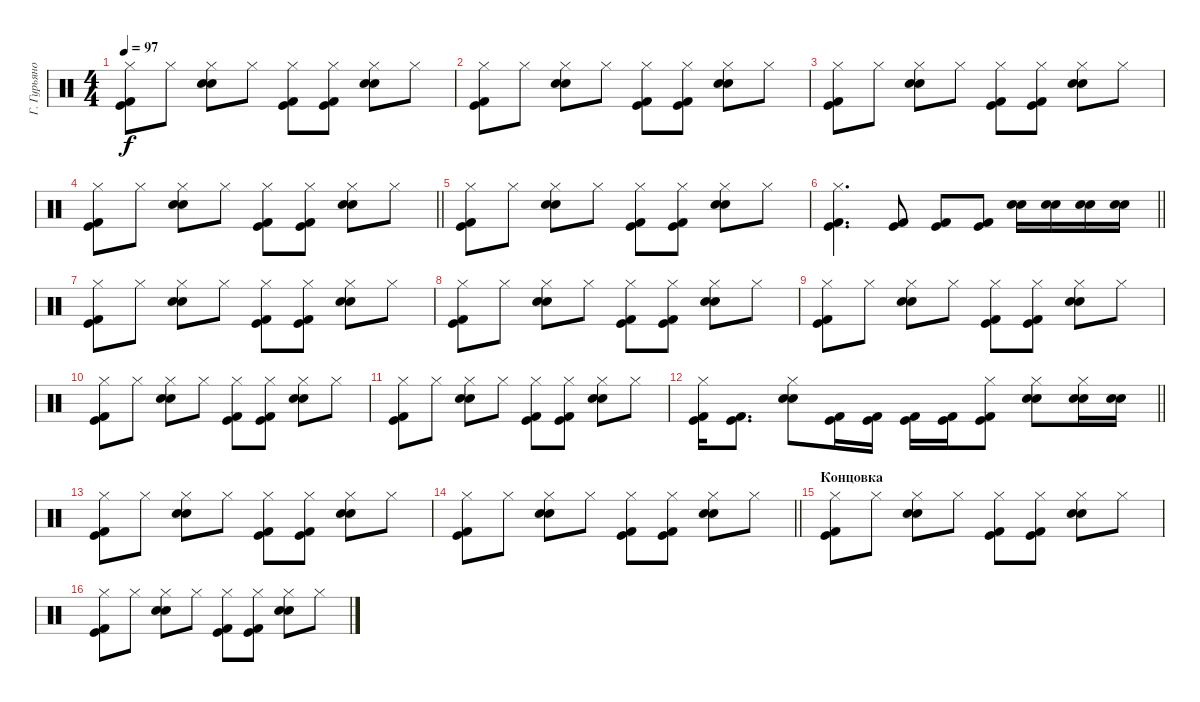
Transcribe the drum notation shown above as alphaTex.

\track ("Г. Гурьянов" "Г. Гурьяно") {instrument percussion}
\staff {score}
\articulation defaults
\ts (4 4)
\tempo 97
\clef neutral
\ks c
("Kick (hit) 2" "Kick (hit)" "Hi-Hat (closed)").8{dy f} "Hi-Hat (closed)".8 ("Electric Snare (hit)" "Snare (hit) 2" "Hi-Hat (closed)").8 "Hi-Hat (closed)".8 ("Kick (hit) 2" "Kick (hit)" "Hi-Hat (closed)").8 ("Kick (hit) 2" "Kick (hit)" "Hi-Hat (closed)").8 ("Electric Snare (hit)" "Snare (hit) 2" "Hi-Hat (closed)").8 "Hi-Hat (closed)".8 |
("Kick (hit) 2" "Kick (hit)" "Hi-Hat (closed)").8 "Hi-Hat (closed)".8 ("Electric Snare (hit)" "Snare (hit) 2" "Hi-Hat (closed)").8 "Hi-Hat (closed)".8 ("Kick (hit) 2" "Kick (hit)" "Hi-Hat (closed)").8 ("Kick (hit) 2" "Kick (hit)" "Hi-Hat (closed)").8 ("Electric Snare (hit)" "Snare (hit) 2" "Hi-Hat (closed)").8 "Hi-Hat (closed)".8 |
("Kick (hit) 2" "Kick (hit)" "Hi-Hat (closed)").8 "Hi-Hat (closed)".8 ("Electric Snare (hit)" "Snare (hit) 2" "Hi-Hat (closed)").8 "Hi-Hat (closed)".8 ("Kick (hit) 2" "Kick (hit)" "Hi-Hat (closed)").8 ("Kick (hit) 2" "Kick (hit)" "Hi-Hat (closed)").8 ("Electric Snare (hit)" "Snare (hit) 2" "Hi-Hat (closed)").8 "Hi-Hat (closed)".8 |
\barLineRight lightlight
("Kick (hit) 2" "Kick (hit)" "Hi-Hat (closed)").8 "Hi-Hat (closed)".8 ("Electric Snare (hit)" "Snare (hit) 2" "Hi-Hat (closed)").8 "Hi-Hat (closed)".8 ("Kick (hit) 2" "Kick (hit)" "Hi-Hat (closed)").8 ("Kick (hit) 2" "Kick (hit)" "Hi-Hat (closed)").8 ("Electric Snare (hit)" "Snare (hit) 2" "Hi-Hat (closed)").8 "Hi-Hat (closed)".8 |
("Kick (hit) 2" "Kick (hit)" "Hi-Hat (closed)").8 "Hi-Hat (closed)".8 ("Electric Snare (hit)" "Snare (hit) 2" "Hi-Hat (closed)").8 "Hi-Hat (closed)".8 ("Kick (hit) 2" "Kick (hit)" "Hi-Hat (closed)").8 ("Kick (hit) 2" "Kick (hit)" "Hi-Hat (closed)").8 ("Electric Snare (hit)" "Snare (hit) 2" "Hi-Hat (closed)").8 "Hi-Hat (closed)".8 |
\barLineRight lightlight
("Kick (hit) 2" "Kick (hit)" "Hi-Hat (closed)").4{d} ("Kick (hit) 2" "Kick (hit)").8 ("Kick (hit) 2" "Kick (hit)").8 ("Kick (hit) 2" "Kick (hit)").8 ("Electric Snare (hit)" "Snare (hit) 2").16 ("Electric Snare (hit)" "Snare (hit) 2").16 ("Electric Snare (hit)" "Snare (hit) 2").16 ("Electric Snare (hit)" "Snare (hit) 2").16 |
("Kick (hit) 2" "Kick (hit)" "Hi-Hat (closed)").8 "Hi-Hat (closed)".8 ("Electric Snare (hit)" "Snare (hit) 2" "Hi-Hat (closed)").8 "Hi-Hat (closed)".8 ("Kick (hit) 2" "Kick (hit)" "Hi-Hat (closed)").8 ("Kick (hit) 2" "Kick (hit)" "Hi-Hat (closed)").8 ("Electric Snare (hit)" "Snare (hit) 2" "Hi-Hat (closed)").8 "Hi-Hat (closed)".8 |
("Kick (hit) 2" "Kick (hit)" "Hi-Hat (closed)").8 "Hi-Hat (closed)".8 ("Electric Snare (hit)" "Snare (hit) 2" "Hi-Hat (closed)").8 "Hi-Hat (closed)".8 ("Kick (hit) 2" "Kick (hit)" "Hi-Hat (closed)").8 ("Kick (hit) 2" "Kick (hit)" "Hi-Hat (closed)").8 ("Electric Snare (hit)" "Snare (hit) 2" "Hi-Hat (closed)").8 "Hi-Hat (closed)".8 |
("Kick (hit) 2" "Kick (hit)" "Hi-Hat (closed)").8 "Hi-Hat (closed)".8 ("Electric Snare (hit)" "Snare (hit) 2" "Hi-Hat (closed)").8 "Hi-Hat (closed)".8 ("Kick (hit) 2" "Kick (hit)" "Hi-Hat (closed)").8 ("Kick (hit) 2" "Kick (hit)" "Hi-Hat (closed)").8 ("Electric Snare (hit)" "Snare (hit) 2" "Hi-Hat (closed)").8 "Hi-Hat (closed)".8 |
("Kick (hit) 2" "Kick (hit)" "Hi-Hat (closed)").8 "Hi-Hat (closed)".8 ("Electric Snare (hit)" "Snare (hit) 2" "Hi-Hat (closed)").8 "Hi-Hat (closed)".8 ("Kick (hit) 2" "Kick (hit)" "Hi-Hat (closed)").8 ("Kick (hit) 2" "Kick (hit)" "Hi-Hat (closed)").8 ("Electric Snare (hit)" "Snare (hit) 2" "Hi-Hat (closed)").8 "Hi-Hat (closed)".8 |
("Kick (hit) 2" "Kick (hit)" "Hi-Hat (closed)").8 "Hi-Hat (closed)".8 ("Electric Snare (hit)" "Snare (hit) 2" "Hi-Hat (closed)").8 "Hi-Hat (closed)".8 ("Kick (hit) 2" "Kick (hit)" "Hi-Hat (closed)").8 ("Kick (hit) 2" "Kick (hit)" "Hi-Hat (closed)").8 ("Electric Snare (hit)" "Snare (hit) 2" "Hi-Hat (closed)").8 "Hi-Hat (closed)".8 |
\barLineRight lightlight
("Kick (hit) 2" "Kick (hit)" "Hi-Hat (closed)").16 ("Kick (hit) 2" "Kick (hit)").8{d} ("Electric Snare (hit)" "Snare (hit) 2" "Hi-Hat (closed)").8 ("Kick (hit) 2" "Kick (hit)").16 ("Kick (hit) 2" "Kick (hit)").16 ("Kick (hit) 2" "Kick (hit)").16 ("Kick (hit) 2" "Kick (hit)").16 ("Kick (hit) 2" "Kick (hit)" "Hi-Hat (closed)").8 ("Electric Snare (hit)" "Snare (hit) 2" "Hi-Hat (closed)").8 ("Electric Snare (hit)" "Snare (hit) 2" "Hi-Hat (closed)").16 ("Electric Snare (hit)" "Snare (hit) 2").16 |
("Kick (hit) 2" "Kick (hit)" "Hi-Hat (closed)").8 "Hi-Hat (closed)".8 ("Electric Snare (hit)" "Snare (hit) 2" "Hi-Hat (closed)").8 "Hi-Hat (closed)".8 ("Kick (hit) 2" "Kick (hit)" "Hi-Hat (closed)").8 ("Kick (hit) 2" "Kick (hit)" "Hi-Hat (closed)").8 ("Electric Snare (hit)" "Snare (hit) 2" "Hi-Hat (closed)").8 "Hi-Hat (closed)".8 |
\barLineRight lightlight
("Kick (hit) 2" "Kick (hit)" "Hi-Hat (closed)").8 "Hi-Hat (closed)".8 ("Electric Snare (hit)" "Snare (hit) 2" "Hi-Hat (closed)").8 "Hi-Hat (closed)".8 ("Kick (hit) 2" "Kick (hit)" "Hi-Hat (closed)").8 ("Kick (hit) 2" "Kick (hit)" "Hi-Hat (closed)").8 ("Electric Snare (hit)" "Snare (hit) 2" "Hi-Hat (closed)").8 "Hi-Hat (closed)".8 |
\section ("" "Концовка")
("Kick (hit) 2" "Kick (hit)" "Hi-Hat (closed)").8 "Hi-Hat (closed)".8 ("Electric Snare (hit)" "Snare (hit) 2" "Hi-Hat (closed)").8 "Hi-Hat (closed)".8 ("Kick (hit) 2" "Kick (hit)" "Hi-Hat (closed)").8 ("Kick (hit) 2" "Kick (hit)" "Hi-Hat (closed)").8 ("Electric Snare (hit)" "Snare (hit) 2" "Hi-Hat (closed)").8 "Hi-Hat (closed)".8 |
("Kick (hit) 2" "Kick (hit)" "Hi-Hat (closed)").8 "Hi-Hat (closed)".8 ("Electric Snare (hit)" "Snare (hit) 2" "Hi-Hat (closed)").8 "Hi-Hat (closed)".8 ("Kick (hit) 2" "Kick (hit)" "Hi-Hat (closed)").8 ("Kick (hit) 2" "Kick (hit)" "Hi-Hat (closed)").8 ("Electric Snare (hit)" "Snare (hit) 2" "Hi-Hat (closed)").8 "Hi-Hat (closed)".8
